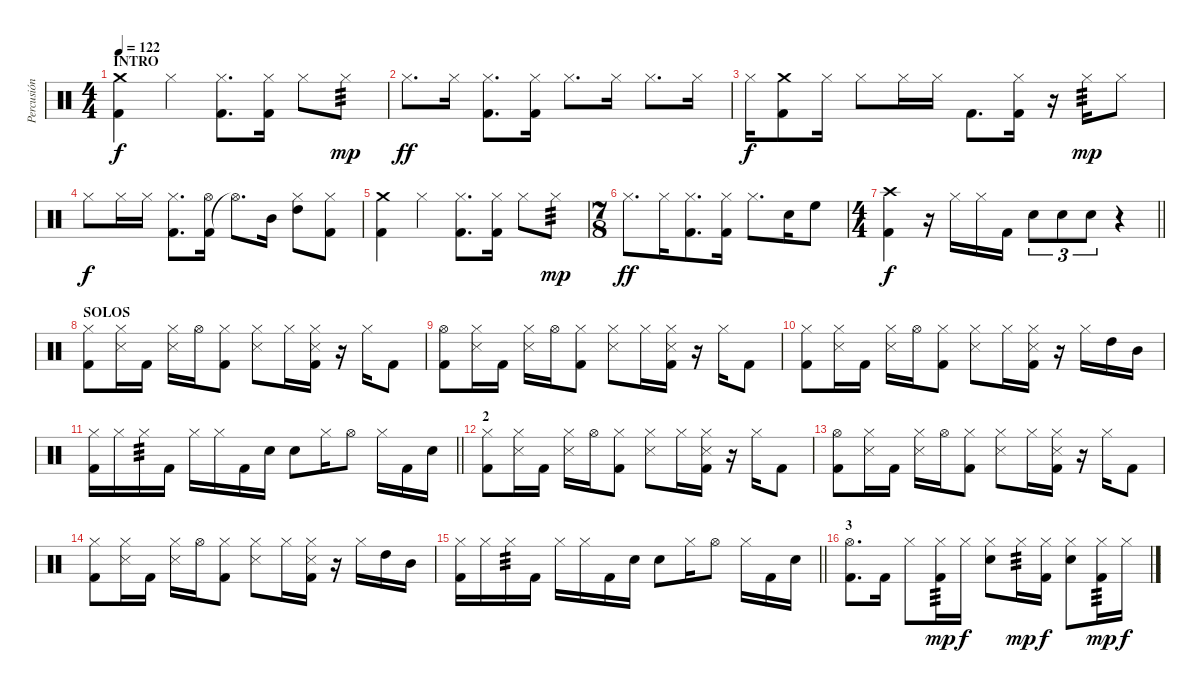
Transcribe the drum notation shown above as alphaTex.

\track ("Percusión" "Percusión") {instrument percussion}
\staff {score}
\articulation defaults
\ts (4 4)
\section ("" "INTRO")
\tempo 122
\clef neutral
\ks c
("Crash medium (hit)" "Kick (hit) 2").4{dy f} "Hi-Hat (closed)".4 ("Hi-Hat (closed)" "Kick (hit) 2").8{d} ("Hi-Hat (closed)" "Kick (hit) 2").16 "Hi-Hat (closed)".8 "Hi-Hat (closed)".8{tp 3 dy mp} |
"Hi-Hat (closed)".8{d dy ff} "Hi-Hat (closed)".16 ("Hi-Hat (closed)" "Kick (hit) 2").8{d} ("Hi-Hat (closed)" "Kick (hit) 2").16 "Hi-Hat (closed)".8{d} "Hi-Hat (closed)".16 "Hi-Hat (closed)".8{d} "Hi-Hat (closed)".16 |
"Hi-Hat (closed)".16{dy f} ("Crash medium (hit)" "Kick (hit) 2").8 "Hi-Hat (closed)".16 "Hi-Hat (closed)".8 "Hi-Hat (closed)".16 "Hi-Hat (closed)".16 "Kick (hit) 2".8{d} ("Hi-Hat (closed)" "Kick (hit) 2").16 r.16 "Hi-Hat (closed)".16{tp 3 dy mp} "Hi-Hat (closed)".8 |
"Hi-Hat (closed)".8{dy f} "Hi-Hat (closed)".16 "Hi-Hat (closed)".16 ("Hi-Hat (closed)" "Kick (hit) 2").8{d} ("Kick (hit) 2" "Hi-Hat (open)").16 "Hi-Hat (open)"{t}.8{d} "Mid Tom (hit)".16 ("Hi-Hat (closed)" "High Tom (hit)").8 ("Hi-Hat (closed)" "Kick (hit) 2").8 |
("Crash medium (hit)" "Kick (hit) 2").4 "Hi-Hat (closed)".4 ("Hi-Hat (closed)" "Kick (hit) 2").8{d} ("Hi-Hat (closed)" "Kick (hit) 2").16 "Hi-Hat (closed)".8 "Hi-Hat (closed)".8{tp 3 dy mp} |
\ts (7 8)
"Hi-Hat (closed)".8{d dy ff} "Hi-Hat (closed)".16 ("Hi-Hat (closed)" "Kick (hit) 2").8{d} ("Hi-Hat (closed)" "Kick (hit) 2").16 "Hi-Hat (closed)".8{d} "Electric Snare (hit)".16 "High Floor Tom (hit)".8 |
\ts (4 4)
\barLineRight lightlight
("Crash high (hit)" "Kick (hit) 2").4{dy f} r.16 "Hi-Hat (closed)".16 "Hi-Hat (closed)".16 "Kick (hit) 2".16 "Electric Snare (hit)".8{tu (3 2)} "Electric Snare (hit)".8{tu (3 2)} "Electric Snare (hit)".8{tu (3 2)} r.4 |
\section ("" "SOLOS")
("Hi-Hat (closed)" "Kick (hit) 2").8 ("Hi-Hat (closed)" "Snare (side stick) 3").16 "Kick (hit) 2".16 ("Hi-Hat (closed)" "Snare (side stick) 3").16 "Hi-Hat (open)".16 ("Hi-Hat (closed)" "Kick (hit) 2").8 ("Hi-Hat (closed)" "Snare (side stick) 3").8 "Hi-Hat (closed)".16 ("Snare (side stick) 3" "Hi-Hat (closed)" "Kick (hit) 2").16 r.16 "Hi-Hat (closed)".16 "Kick (hit) 2".8 |
("Hi-Hat (open)" "Kick (hit) 2").8 ("Hi-Hat (closed)" "Snare (side stick) 3").16 "Kick (hit) 2".16 ("Hi-Hat (closed)" "Snare (side stick) 3").16 "Hi-Hat (open)".16 ("Hi-Hat (closed)" "Kick (hit) 2").8 ("Hi-Hat (closed)" "Snare (side stick) 3").8 "Hi-Hat (closed)".16 ("Snare (side stick) 3" "Hi-Hat (closed)" "Kick (hit) 2").16 r.16 "Hi-Hat (closed)".16 "Kick (hit) 2".8 |
("Hi-Hat (closed)" "Kick (hit) 2").8 ("Hi-Hat (closed)" "Snare (side stick) 3").16 "Kick (hit) 2".16 ("Hi-Hat (closed)" "Snare (side stick) 3").16 "Hi-Hat (open)".16 ("Hi-Hat (closed)" "Kick (hit) 2").8 ("Hi-Hat (closed)" "Snare (side stick) 3").8 "Hi-Hat (closed)".16 ("Snare (side stick) 3" "Hi-Hat (closed)" "Kick (hit) 2").16 r.16 "Hi-Hat (closed)".16 "High Tom (hit)".16 "Mid Tom (hit)".16 |
\barLineRight lightlight
("Hi-Hat (closed)" "Kick (hit) 2").16 "Hi-Hat (closed)".16 "Hi-Hat (closed)".16{tp 3} "Kick (hit) 2".16 "Hi-Hat (closed)".16 "Hi-Hat (closed)".16 "Kick (hit) 2".16 "Electric Snare (hit)".16 "Electric Snare (hit)".8 "Hi-Hat (closed)".16 "Hi-Hat (open)".8 "Hi-Hat (closed)".16 "Kick (hit) 2".16 "Electric Snare (hit)".16 |
\section ("" "2")
("Hi-Hat (closed)" "Kick (hit) 2").8 ("Hi-Hat (closed)" "Snare (side stick) 3").16 "Kick (hit) 2".16 ("Hi-Hat (closed)" "Snare (side stick) 3").16 "Hi-Hat (open)".16 ("Hi-Hat (closed)" "Kick (hit) 2").8 ("Hi-Hat (closed)" "Snare (side stick) 3").8 "Hi-Hat (closed)".16 ("Snare (side stick) 3" "Hi-Hat (closed)" "Kick (hit) 2").16 r.16 "Hi-Hat (closed)".16 "Kick (hit) 2".8 |
("Hi-Hat (open)" "Kick (hit) 2").8 ("Hi-Hat (closed)" "Snare (side stick) 3").16 "Kick (hit) 2".16 ("Hi-Hat (closed)" "Snare (side stick) 3").16 "Hi-Hat (open)".16 ("Hi-Hat (closed)" "Kick (hit) 2").8 ("Hi-Hat (closed)" "Snare (side stick) 3").8 "Hi-Hat (closed)".16 ("Snare (side stick) 3" "Hi-Hat (closed)" "Kick (hit) 2").16 r.16 "Hi-Hat (closed)".16 "Kick (hit) 2".8 |
("Hi-Hat (closed)" "Kick (hit) 2").8 ("Hi-Hat (closed)" "Snare (side stick) 3").16 "Kick (hit) 2".16 ("Hi-Hat (closed)" "Snare (side stick) 3").16 "Hi-Hat (open)".16 ("Hi-Hat (closed)" "Kick (hit) 2").8 ("Hi-Hat (closed)" "Snare (side stick) 3").8 "Hi-Hat (closed)".16 ("Snare (side stick) 3" "Hi-Hat (closed)" "Kick (hit) 2").16 r.16 "Hi-Hat (closed)".16 "High Tom (hit)".16 "Mid Tom (hit)".16 |
\barLineRight lightlight
("Hi-Hat (closed)" "Kick (hit) 2").16 "Hi-Hat (closed)".16 "Hi-Hat (closed)".16{tp 3} "Kick (hit) 2".16 "Hi-Hat (closed)".16 "Hi-Hat (closed)".16 "Kick (hit) 2".16 "Electric Snare (hit)".16 "Electric Snare (hit)".8 "Hi-Hat (closed)".16 "Hi-Hat (open)".8 "Hi-Hat (closed)".16 "Kick (hit) 2".16 "Electric Snare (hit)".16 |
\section ("" "3")
("Hi-Hat (open)" "Kick (hit) 2").8{d} "Kick (hit) 2".16 "Hi-Hat (closed)".8 ("Kick (hit) 2" "Hi-Hat (closed)").16{tp 3 dy mp} "Hi-Hat (closed)".16{dy f} ("Electric Snare (hit)" "Hi-Hat (closed)").8 "Hi-Hat (closed)".16{tp 3 dy mp} ("Kick (hit) 2" "Hi-Hat (closed)").16{dy f} ("Electric Snare (hit)" "Hi-Hat (closed)").8 ("Kick (hit) 2" "Hi-Hat (closed)").16{tp 3 dy mp} "Hi-Hat (closed)".16{dy f}
